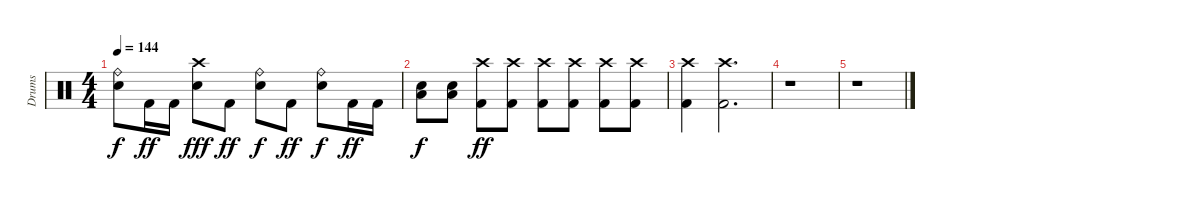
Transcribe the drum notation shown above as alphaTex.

\track ("Drums" "Drums") {instrument percussion}
\staff {score}
\articulation defaults
\ts (4 4)
\tempo 144
\clef neutral
\ks c
("Ride (bell)" "Snare (hit) 2").8{dy f} "Kick (hit) 2".16{dy ff} "Kick (hit) 2".16 ("Crash high (hit)" "Snare (hit) 2").8{dy fff} "Kick (hit) 2".8{dy ff} ("Ride (bell)" "Snare (hit) 2").8{dy f} "Kick (hit) 2".8{dy ff} ("Ride (bell)" "Snare (hit) 2").8{dy f} "Kick (hit) 2".16{dy ff} "Kick (hit) 2".16 |
("Snare (hit) 2" "Low Floor Tom (hit)").8{dy f} ("Snare (hit) 2" "Low Floor Tom (hit)").8 ("Crash high (hit)" "Kick (hit) 2").8{dy ff} ("Crash high (hit)" "Kick (hit) 2").8 ("Crash high (hit)" "Kick (hit) 2").8 ("Crash high (hit)" "Kick (hit) 2").8 ("Crash high (hit)" "Kick (hit) 2").8 ("Crash high (hit)" "Kick (hit) 2").8 |
("Crash high (hit)" "Kick (hit) 2").4 ("Crash high (hit)" "Kick (hit) 2").2{d} |
r.1 |
r.1
